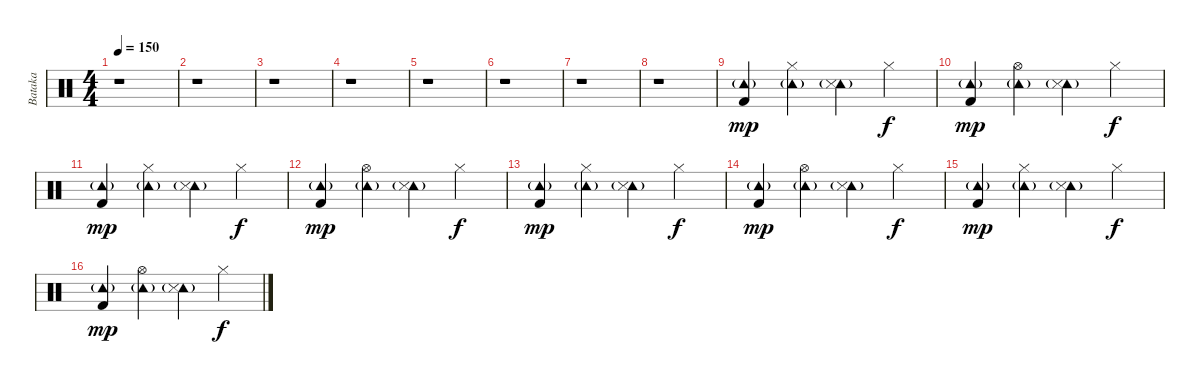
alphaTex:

\track ("Bataka" "Bataka") {instrument percussion}
\staff {score}
\articulation defaults
\ts (4 4)
\tempo 150
\clef neutral
\ks c
r.1{dy mp} |
r.1 |
r.1 |
r.1 |
r.1 |
r.1 |
r.1 |
r.1 |
("Tambourine (hit)"{g} "Kick (hit) 2").4 ("Tambourine (hit)"{g} "Hi-Hat (closed)").4 ("Tambourine (hit)"{g} "Snare (side stick) 3").4 "Hi-Hat (closed)".4{dy f} |
("Tambourine (hit)"{g} "Kick (hit) 2").4{dy mp} ("Tambourine (hit)"{g} "Hi-Hat (open)").4 ("Tambourine (hit)"{g} "Snare (side stick) 3").4 "Hi-Hat (closed)".4{dy f} |
("Tambourine (hit)"{g} "Kick (hit) 2").4{dy mp} ("Tambourine (hit)"{g} "Hi-Hat (closed)").4 ("Tambourine (hit)"{g} "Snare (side stick) 3").4 "Hi-Hat (closed)".4{dy f} |
("Tambourine (hit)"{g} "Kick (hit) 2").4{dy mp} ("Tambourine (hit)"{g} "Hi-Hat (open)").4 ("Tambourine (hit)"{g} "Snare (side stick) 3").4 "Hi-Hat (closed)".4{dy f} |
("Tambourine (hit)"{g} "Kick (hit) 2").4{dy mp} ("Tambourine (hit)"{g} "Hi-Hat (closed)").4 ("Tambourine (hit)"{g} "Snare (side stick) 3").4 "Hi-Hat (closed)".4{dy f} |
("Tambourine (hit)"{g} "Kick (hit) 2").4{dy mp} ("Tambourine (hit)"{g} "Hi-Hat (open)").4 ("Tambourine (hit)"{g} "Snare (side stick) 3").4 "Hi-Hat (closed)".4{dy f} |
("Tambourine (hit)"{g} "Kick (hit) 2").4{dy mp} ("Tambourine (hit)"{g} "Hi-Hat (closed)").4 ("Tambourine (hit)"{g} "Snare (side stick) 3").4 "Hi-Hat (closed)".4{dy f} |
("Tambourine (hit)"{g} "Kick (hit) 2").4{dy mp} ("Tambourine (hit)"{g} "Hi-Hat (open)").4 ("Tambourine (hit)"{g} "Snare (side stick) 3").4 "Hi-Hat (closed)".4{dy f}
